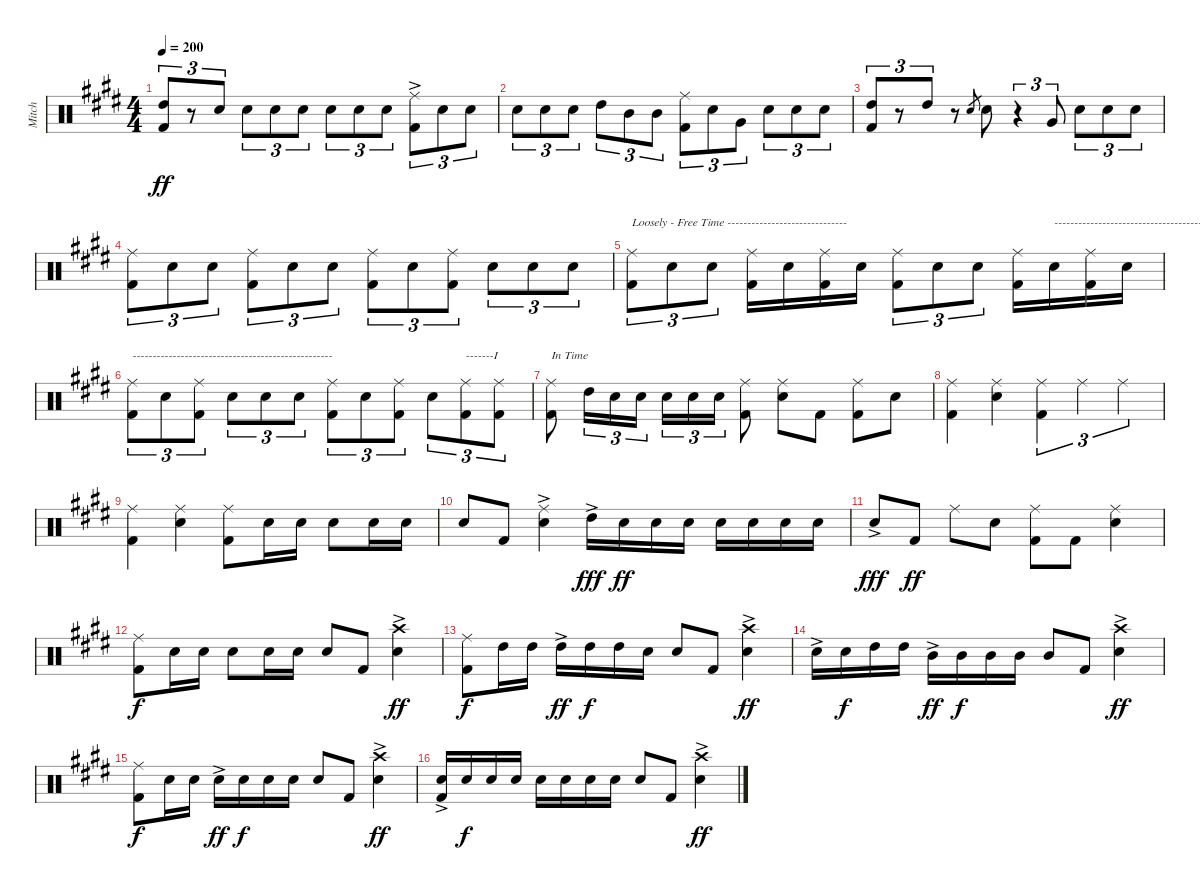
\track ("Mitch" "Mitch") {instrument percussion}
\staff {score}
\articulation defaults
\ts (4 4)
\tempo 200
\clef neutral
\ks e
("High Tom (hit)" "Kick (hit) 2").8{tu (3 2) dy ff} r.8{tu (3 2)} "Snare (hit) 2".8{tu (3 2)} "Snare (hit) 2".8{tu (3 2)} "Snare (hit) 2".8{tu (3 2)} "Snare (hit) 2".8{tu (3 2)} "Snare (hit) 2".8{tu (3 2)} "Snare (hit) 2".8{tu (3 2)} "Snare (hit) 2".8{tu (3 2)} ("Ride (middle)"{ac} "Kick (hit) 2").8{tu (3 2)} "Snare (hit) 2".8{tu (3 2)} "Snare (hit) 2".8{tu (3 2)} |
"Snare (hit) 2".8{tu (3 2)} "Snare (hit) 2".8{tu (3 2)} "Snare (hit) 2".8{tu (3 2)} "High Tom (hit)".8{tu (3 2)} "Mid Tom (hit)".8{tu (3 2)} "Mid Tom (hit)".8{tu (3 2)} ("Ride (middle)" "Kick (hit) 2").8{tu (3 2)} "Snare (hit) 2".8{tu (3 2)} "Very Low Tom (hit)".8{tu (3 2)} "Snare (hit) 2".8{tu (3 2)} "Snare (hit) 2".8{tu (3 2)} "Snare (hit) 2".8{tu (3 2)} |
("High Tom (hit)" "Kick (hit) 2").8{tu (3 2)} r.8{tu (3 2)} "High Tom (hit)".8{tu (3 2)} r.8 "Snare (hit) 2".8{gr} "Snare (hit) 2".8 r.4{tu (3 2)} "Very Low Tom (hit)".8{tu (3 2)} "Snare (hit) 2".8{tu (3 2)} "Snare (hit) 2".8{tu (3 2)} "Snare (hit) 2".8{tu (3 2)} |
("Ride (middle)" "Kick (hit) 2").8{tu (3 2)} "Snare (hit) 2".8{tu (3 2)} "Snare (hit) 2".8{tu (3 2)} ("Ride (middle)" "Kick (hit) 2").8{tu (3 2)} "Snare (hit) 2".8{tu (3 2)} "Snare (hit) 2".8{tu (3 2)} ("Ride (middle)" "Kick (hit) 2").8{tu (3 2)} "Snare (hit) 2".8{tu (3 2)} ("Ride (middle)" "Kick (hit) 2").8{tu (3 2)} "Snare (hit) 2".8{tu (3 2)} "Snare (hit) 2".8{tu (3 2)} "Snare (hit) 2".8{tu (3 2)} |
("Ride (middle)" "Kick (hit) 2").8{tu (3 2) txt "Loosely - Free Time ------------------------------"} "Snare (hit) 2".8{tu (3 2)} "Snare (hit) 2".8{tu (3 2)} ("Ride (middle)" "Kick (hit) 2").16 "Snare (hit) 2".16 ("Ride (middle)" "Kick (hit) 2").16 "Snare (hit) 2".16 ("Ride (middle)" "Kick (hit) 2").8{tu (3 2)} "Snare (hit) 2".8{tu (3 2)} "Snare (hit) 2".8{tu (3 2)} ("Ride (middle)" "Kick (hit) 2").16 "Snare (hit) 2".16{txt "--------------------------------------------------"} ("Ride (middle)" "Kick (hit) 2").16 "Snare (hit) 2".16 |
("Ride (middle)" "Kick (hit) 2").8{tu (3 2) txt "--------------------------------------------------"} "Snare (hit) 2".8{tu (3 2)} ("Ride (middle)" "Kick (hit) 2").8{tu (3 2)} "Snare (hit) 2".8{tu (3 2)} "Snare (hit) 2".8{tu (3 2)} "Snare (hit) 2".8{tu (3 2)} ("Ride (middle)" "Kick (hit) 2").8{tu (3 2)} "Snare (hit) 2".8{tu (3 2)} ("Ride (middle)" "Kick (hit) 2").8{tu (3 2)} "Snare (hit) 2".8{tu (3 2)} ("Ride (middle)" "Kick (hit) 2").8{tu (3 2) txt "-------I"} ("Ride (middle)" "Kick (hit) 2").8{tu (3 2)} |
("Ride (middle)" "Kick (hit) 2").8{txt "In Time"} "High Tom (hit)".16{tu (3 2)} "Snare (hit) 2".16{tu (3 2)} "Snare (hit) 2".16{tu (3 2)} "Snare (hit) 2".16{tu (3 2)} "Snare (hit) 2".16{tu (3 2)} "Snare (hit) 2".16{tu (3 2)} ("Ride (middle)" "Kick (hit) 2").8 ("Ride (middle)" "Snare (hit) 2").8 "Kick (hit) 2".8 ("Ride (middle)" "Kick (hit) 2").8 "Snare (hit) 2".8 |
("Ride (middle)" "Kick (hit) 2").4 ("Ride (middle)" "Snare (hit) 2").4 ("Ride (middle)" "Kick (hit) 2").4{tu (3 2)} "Ride (middle)".4{tu (3 2)} "Ride (middle)".4{tu (3 2)} |
("Ride (middle)" "Kick (hit) 2").4 ("Ride (middle)" "Snare (hit) 2").4 ("Ride (middle)" "Kick (hit) 2").8 "Snare (hit) 2".16 "Snare (hit) 2".16 "Snare (hit) 2".8 "Snare (hit) 2".16 "Snare (hit) 2".16 |
"Snare (hit) 2".8 "Kick (hit) 2".8 ("Ride (middle)"{ac} "Snare (hit) 2").4 "High Tom (hit)"{ac}.16{dy fff} "Snare (hit) 2".16{dy ff} "Snare (hit) 2".16 "Snare (hit) 2".16 "Snare (hit) 2".16 "Snare (hit) 2".16 "Snare (hit) 2".16 "Snare (hit) 2".16 |
"Snare (hit) 2"{ac}.8{dy fff} "Kick (hit) 2".8{dy ff} "Ride (middle)".8 "Snare (hit) 2".8 ("Ride (middle)" "Kick (hit) 2").8 "Kick (hit) 2".8 ("Ride (middle)" "Snare (hit) 2").4 |
("Ride (middle)" "Kick (hit) 2").8{dy f} "Snare (hit) 2".16 "Snare (hit) 2".16 "Snare (hit) 2".8 "Snare (hit) 2".16 "Snare (hit) 2".16 "Snare (hit) 2".8 "Kick (hit) 2".8 ("Crash high (hit)"{ac} "Snare (hit) 2").4{dy ff} |
("Ride (middle)" "Kick (hit) 2").8{dy f} "High Tom (hit)".16 "High Tom (hit)".16 "High Tom (hit)"{ac}.16{dy ff} "High Tom (hit)".16{dy f} "High Tom (hit)".16 "Snare (hit) 2".16 "Snare (hit) 2".8 "Kick (hit) 2".8 ("Crash high (hit)"{ac} "Snare (hit) 2").4{dy ff} |
"Snare (hit) 2"{ac}.16 "Snare (hit) 2".16{dy f} "High Tom (hit)".16 "High Tom (hit)".16 "Mid Tom (hit)"{ac}.16{dy ff} "Mid Tom (hit)".16{dy f} "Mid Tom (hit)".16 "Mid Tom (hit)".16 "Mid Tom (hit)".8 "Kick (hit) 2".8 ("Crash high (hit)"{ac} "Snare (hit) 2").4{dy ff} |
("Ride (middle)" "Kick (hit) 2").8{dy f} "Snare (hit) 2".16 "Snare (hit) 2".16 "Snare (hit) 2"{ac}.16{dy ff} "Snare (hit) 2".16{dy f} "Snare (hit) 2".16 "Snare (hit) 2".16 "Snare (hit) 2".8 "Kick (hit) 2".8 ("Crash high (hit)"{ac} "Snare (hit) 2").4{dy ff} |
("Snare (hit) 2"{ac} "Kick (hit) 2").16 "Snare (hit) 2".16{dy f} "Snare (hit) 2".16 "Snare (hit) 2".16 "Snare (hit) 2".16 "Snare (hit) 2".16 "Snare (hit) 2".16 "Snare (hit) 2".16 "Snare (hit) 2".8 "Kick (hit) 2".8 ("Crash high (hit)"{ac} "Snare (hit) 2").4{dy ff}
